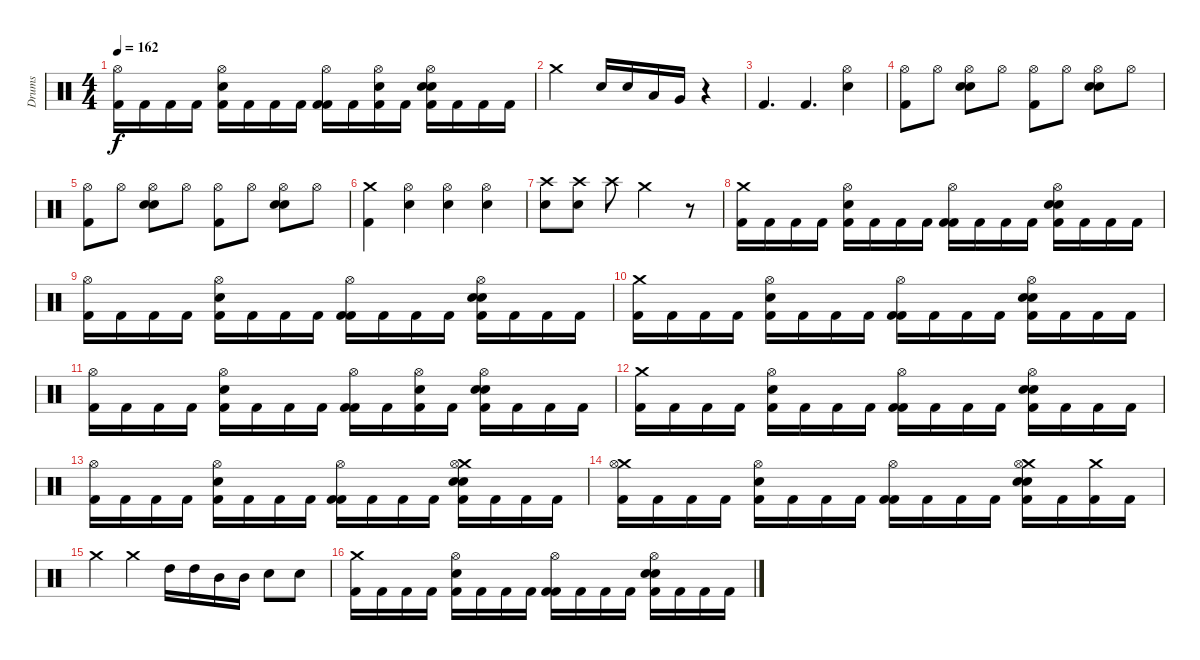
\track ("Drums" "Drums") {instrument percussion}
\staff {score}
\articulation defaults
\ts (4 4)
\tempo 162
\clef neutral
\ks c
("Hi-Hat (open)" "Kick (hit) 2").16{dy f} "Kick (hit) 2".16 "Kick (hit) 2".16 "Kick (hit) 2".16 ("Kick (hit) 2" "Electric Snare (hit)" "Hi-Hat (open)").16 "Kick (hit) 2".16 "Kick (hit) 2".16 "Kick (hit) 2".16 ("Kick (hit) 2" "Hi-Hat (open)" "Kick (hit) 2").16 "Kick (hit) 2".16 ("Kick (hit) 2" "Electric Snare (hit)" "Hi-Hat (open)").16 "Kick (hit) 2".16 ("Kick (hit) 2" "Electric Snare (hit)" "Hi-Hat (open)" "Snare (hit) 2").16 "Kick (hit) 2".16 "Kick (hit) 2".16 "Kick (hit) 2".16 |
"Crash medium (hit)".2 "Electric Snare (hit)".16 "Electric Snare (hit)".16 "Low Tom (hit)".16 "Very Low Tom (hit)".16 r.4 |
"Kick (hit) 2".4{d} "Kick (hit) 2".4{d} ("Hi-Hat (open)" "Electric Snare (hit)").4 |
("Hi-Hat (open)" "Kick (hit) 2").8 "Hi-Hat (open)".8 ("Electric Snare (hit)" "Hi-Hat (open)" "Snare (hit) 2").8 "Hi-Hat (open)".8 ("Hi-Hat (open)" "Kick (hit) 2").8 "Hi-Hat (open)".8 ("Electric Snare (hit)" "Hi-Hat (open)" "Snare (hit) 2").8 "Hi-Hat (open)".8 |
("Hi-Hat (open)" "Kick (hit) 2").8 "Hi-Hat (open)".8 ("Electric Snare (hit)" "Hi-Hat (open)" "Snare (hit) 2").8 "Hi-Hat (open)".8 ("Hi-Hat (open)" "Kick (hit) 2").8 "Hi-Hat (open)".8 ("Electric Snare (hit)" "Hi-Hat (open)" "Snare (hit) 2").8 "Hi-Hat (open)".8 |
("Crash medium (hit)" "Kick (hit) 2").4 ("Electric Snare (hit)" "Hi-Hat (open)").4 ("Hi-Hat (open)" "Snare (hit) 2").4 ("Electric Snare (hit)" "Hi-Hat (open)").4 |
("Crash high (hit)" "Electric Snare (hit)").8 ("Crash high (hit)" "Electric Snare (hit)").8 "Crash high (hit)".8 "Crash medium (hit)".2 r.8 |
("Crash medium (hit)" "Kick (hit) 2").16 "Kick (hit) 2".16 "Kick (hit) 2".16 "Kick (hit) 2".16 ("Kick (hit) 2" "Electric Snare (hit)" "Hi-Hat (open)").16 "Kick (hit) 2".16 "Kick (hit) 2".16 "Kick (hit) 2".16 ("Kick (hit) 2" "Hi-Hat (open)" "Kick (hit) 2").16 "Kick (hit) 2".16 "Kick (hit) 2".16 "Kick (hit) 2".16 ("Kick (hit) 2" "Electric Snare (hit)" "Hi-Hat (open)" "Snare (hit) 2").16 "Kick (hit) 2".16 "Kick (hit) 2".16 "Kick (hit) 2".16 |
("Hi-Hat (open)" "Kick (hit) 2").16 "Kick (hit) 2".16 "Kick (hit) 2".16 "Kick (hit) 2".16 ("Kick (hit) 2" "Electric Snare (hit)" "Hi-Hat (open)").16 "Kick (hit) 2".16 "Kick (hit) 2".16 "Kick (hit) 2".16 ("Kick (hit) 2" "Hi-Hat (open)" "Kick (hit) 2").16 "Kick (hit) 2".16 "Kick (hit) 2".16 "Kick (hit) 2".16 ("Kick (hit) 2" "Electric Snare (hit)" "Hi-Hat (open)" "Snare (hit) 2").16 "Kick (hit) 2".16 "Kick (hit) 2".16 "Kick (hit) 2".16 |
("Crash medium (hit)" "Kick (hit) 2").16 "Kick (hit) 2".16 "Kick (hit) 2".16 "Kick (hit) 2".16 ("Kick (hit) 2" "Electric Snare (hit)" "Hi-Hat (open)").16 "Kick (hit) 2".16 "Kick (hit) 2".16 "Kick (hit) 2".16 ("Kick (hit) 2" "Hi-Hat (open)" "Kick (hit) 2").16 "Kick (hit) 2".16 "Kick (hit) 2".16 "Kick (hit) 2".16 ("Kick (hit) 2" "Electric Snare (hit)" "Hi-Hat (open)" "Snare (hit) 2").16 "Kick (hit) 2".16 "Kick (hit) 2".16 "Kick (hit) 2".16 |
("Hi-Hat (open)" "Kick (hit) 2").16 "Kick (hit) 2".16 "Kick (hit) 2".16 "Kick (hit) 2".16 ("Kick (hit) 2" "Electric Snare (hit)" "Hi-Hat (open)").16 "Kick (hit) 2".16 "Kick (hit) 2".16 "Kick (hit) 2".16 ("Kick (hit) 2" "Hi-Hat (open)" "Kick (hit) 2").16 "Kick (hit) 2".16 ("Kick (hit) 2" "Electric Snare (hit)" "Hi-Hat (open)").16 "Kick (hit) 2".16 ("Kick (hit) 2" "Electric Snare (hit)" "Hi-Hat (open)" "Snare (hit) 2").16 "Kick (hit) 2".16 "Kick (hit) 2".16 "Kick (hit) 2".16 |
("Crash medium (hit)" "Kick (hit) 2").16 "Kick (hit) 2".16 "Kick (hit) 2".16 "Kick (hit) 2".16 ("Kick (hit) 2" "Electric Snare (hit)" "Hi-Hat (open)").16 "Kick (hit) 2".16 "Kick (hit) 2".16 "Kick (hit) 2".16 ("Kick (hit) 2" "Hi-Hat (open)" "Kick (hit) 2").16 "Kick (hit) 2".16 "Kick (hit) 2".16 "Kick (hit) 2".16 ("Kick (hit) 2" "Electric Snare (hit)" "Hi-Hat (open)" "Snare (hit) 2").16 "Kick (hit) 2".16 "Kick (hit) 2".16 "Kick (hit) 2".16 |
("Hi-Hat (open)" "Kick (hit) 2").16 "Kick (hit) 2".16 "Kick (hit) 2".16 "Kick (hit) 2".16 ("Kick (hit) 2" "Electric Snare (hit)" "Hi-Hat (open)").16 "Kick (hit) 2".16 "Kick (hit) 2".16 "Kick (hit) 2".16 ("Kick (hit) 2" "Hi-Hat (open)" "Kick (hit) 2").16 "Kick (hit) 2".16 "Kick (hit) 2".16 "Kick (hit) 2".16 ("Crash medium (hit)" "Kick (hit) 2" "Electric Snare (hit)" "Hi-Hat (open)" "Snare (hit) 2").16 "Kick (hit) 2".16 "Kick (hit) 2".16 "Kick (hit) 2".16 |
("Crash medium (hit)" "Hi-Hat (open)" "Kick (hit) 2").16 "Kick (hit) 2".16 "Kick (hit) 2".16 "Kick (hit) 2".16 ("Kick (hit) 2" "Electric Snare (hit)" "Hi-Hat (open)").16 "Kick (hit) 2".16 "Kick (hit) 2".16 "Kick (hit) 2".16 ("Kick (hit) 2" "Hi-Hat (open)" "Kick (hit) 2").16 "Kick (hit) 2".16 "Kick (hit) 2".16 "Kick (hit) 2".16 ("Crash medium (hit)" "Kick (hit) 2" "Electric Snare (hit)" "Hi-Hat (open)" "Snare (hit) 2").16 "Kick (hit) 2".16 ("Crash medium (hit)" "Kick (hit) 2").16 "Kick (hit) 2".16 |
"Crash medium (hit)".4 "Crash medium (hit)".4 "High Tom (hit)".16 "High Tom (hit)".16 "Mid Tom (hit)".16 "Mid Tom (hit)".16 "Electric Snare (hit)".8 "Electric Snare (hit)".8 |
("Crash medium (hit)" "Kick (hit) 2").16 "Kick (hit) 2".16 "Kick (hit) 2".16 "Kick (hit) 2".16 ("Kick (hit) 2" "Electric Snare (hit)" "Hi-Hat (open)").16 "Kick (hit) 2".16 "Kick (hit) 2".16 "Kick (hit) 2".16 ("Kick (hit) 2" "Hi-Hat (open)" "Kick (hit) 2").16 "Kick (hit) 2".16 "Kick (hit) 2".16 "Kick (hit) 2".16 ("Kick (hit) 2" "Electric Snare (hit)" "Hi-Hat (open)" "Snare (hit) 2").16 "Kick (hit) 2".16 "Kick (hit) 2".16 "Kick (hit) 2".16
